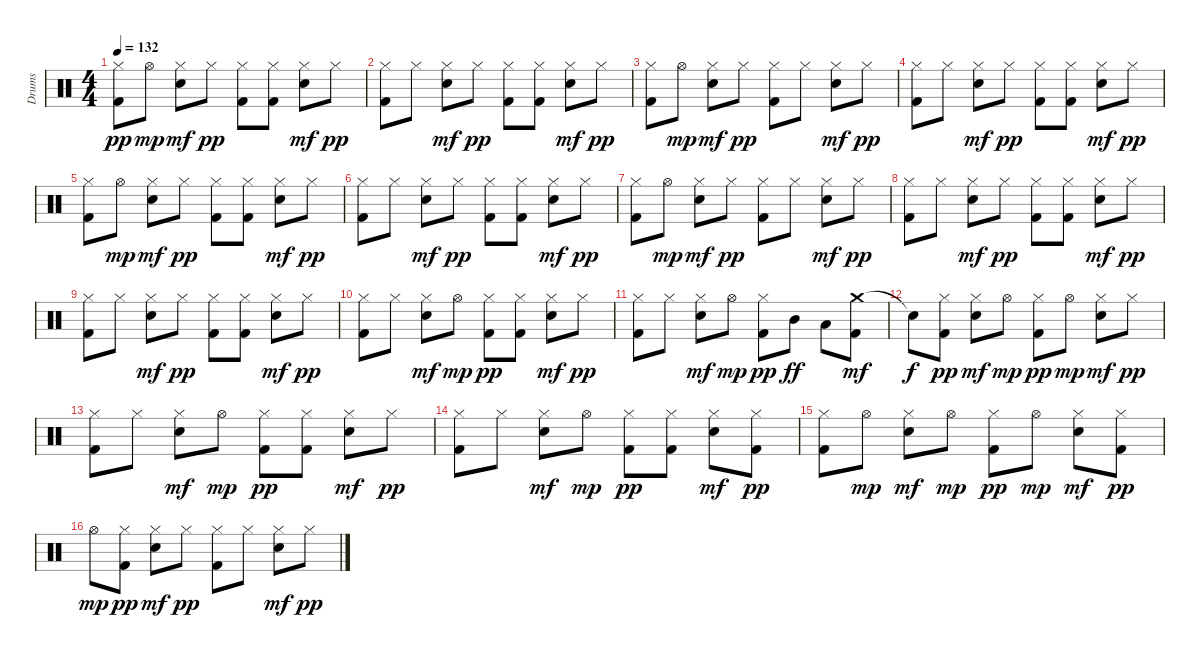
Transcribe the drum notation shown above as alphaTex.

\track ("Drums" "Drums") {instrument percussion}
\staff {score}
\articulation defaults
\ts (4 4)
\tempo 132
\clef neutral
\ks c
("Hi-Hat (closed)" "Kick (hit) 2").8{dy pp} "Hi-Hat (open)".8{dy mp} ("Hi-Hat (closed)" "Snare (hit) 2").8{dy mf} "Hi-Hat (closed)".8{dy pp} ("Hi-Hat (closed)" "Kick (hit) 2").8 ("Hi-Hat (closed)" "Kick (hit) 2").8 ("Hi-Hat (closed)" "Snare (hit) 2").8{dy mf} "Hi-Hat (closed)".8{dy pp} |
("Hi-Hat (closed)" "Kick (hit) 2").8 "Hi-Hat (closed)".8 ("Hi-Hat (closed)" "Snare (hit) 2").8{dy mf} "Hi-Hat (closed)".8{dy pp} ("Hi-Hat (closed)" "Kick (hit) 2").8 ("Hi-Hat (closed)" "Kick (hit) 2").8 ("Hi-Hat (closed)" "Snare (hit) 2").8{dy mf} "Hi-Hat (closed)".8{dy pp} |
("Hi-Hat (closed)" "Kick (hit) 2").8 "Hi-Hat (open)".8{dy mp} ("Hi-Hat (closed)" "Snare (hit) 2").8{dy mf} "Hi-Hat (closed)".8{dy pp} ("Hi-Hat (closed)" "Kick (hit) 2").8 "Hi-Hat (closed)".8 ("Hi-Hat (closed)" "Snare (hit) 2").8{dy mf} "Hi-Hat (closed)".8{dy pp} |
("Hi-Hat (closed)" "Kick (hit) 2").8 "Hi-Hat (closed)".8 ("Hi-Hat (closed)" "Snare (hit) 2").8{dy mf} "Hi-Hat (closed)".8{dy pp} ("Hi-Hat (closed)" "Kick (hit) 2").8 ("Hi-Hat (closed)" "Kick (hit) 2").8 ("Hi-Hat (closed)" "Snare (hit) 2").8{dy mf} "Hi-Hat (closed)".8{dy pp} |
("Hi-Hat (closed)" "Kick (hit) 2").8 "Hi-Hat (open)".8{dy mp} ("Hi-Hat (closed)" "Snare (hit) 2").8{dy mf} "Hi-Hat (closed)".8{dy pp} ("Hi-Hat (closed)" "Kick (hit) 2").8 ("Hi-Hat (closed)" "Kick (hit) 2").8 ("Hi-Hat (closed)" "Snare (hit) 2").8{dy mf} "Hi-Hat (closed)".8{dy pp} |
("Hi-Hat (closed)" "Kick (hit) 2").8 "Hi-Hat (closed)".8 ("Hi-Hat (closed)" "Snare (hit) 2").8{dy mf} "Hi-Hat (closed)".8{dy pp} ("Hi-Hat (closed)" "Kick (hit) 2").8 ("Hi-Hat (closed)" "Kick (hit) 2").8 ("Hi-Hat (closed)" "Snare (hit) 2").8{dy mf} "Hi-Hat (closed)".8{dy pp} |
("Hi-Hat (closed)" "Kick (hit) 2").8 "Hi-Hat (open)".8{dy mp} ("Hi-Hat (closed)" "Snare (hit) 2").8{dy mf} "Hi-Hat (closed)".8{dy pp} ("Hi-Hat (closed)" "Kick (hit) 2").8 "Hi-Hat (closed)".8 ("Hi-Hat (closed)" "Snare (hit) 2").8{dy mf} "Hi-Hat (closed)".8{dy pp} |
("Hi-Hat (closed)" "Kick (hit) 2").8 "Hi-Hat (closed)".8 ("Hi-Hat (closed)" "Snare (hit) 2").8{dy mf} "Hi-Hat (closed)".8{dy pp} ("Hi-Hat (closed)" "Kick (hit) 2").8 ("Hi-Hat (closed)" "Kick (hit) 2").8 ("Hi-Hat (closed)" "Snare (hit) 2").8{dy mf} "Hi-Hat (closed)".8{dy pp} |
("Hi-Hat (closed)" "Kick (hit) 2").8 "Hi-Hat (closed)".8 ("Hi-Hat (closed)" "Snare (hit) 2").8{dy mf} "Hi-Hat (closed)".8{dy pp} ("Hi-Hat (closed)" "Kick (hit) 2").8 ("Hi-Hat (closed)" "Kick (hit) 2").8 ("Hi-Hat (closed)" "Snare (hit) 2").8{dy mf} "Hi-Hat (closed)".8{dy pp} |
("Hi-Hat (closed)" "Kick (hit) 2").8 "Hi-Hat (closed)".8 ("Hi-Hat (closed)" "Snare (hit) 2").8{dy mf} "Hi-Hat (open)".8{dy mp} ("Hi-Hat (closed)" "Kick (hit) 2").8{dy pp} ("Hi-Hat (closed)" "Kick (hit) 2").8 ("Hi-Hat (closed)" "Snare (hit) 2").8{dy mf} "Hi-Hat (closed)".8{dy pp} |
("Hi-Hat (closed)" "Kick (hit) 2").8 "Hi-Hat (closed)".8 ("Hi-Hat (closed)" "Snare (hit) 2").8{dy mf} "Hi-Hat (open)".8{dy mp} ("Hi-Hat (closed)" "Kick (hit) 2").8{dy pp} "Mid Tom (hit)".8{dy ff} "Low Tom (hit)".8 ("Crash medium (hit)" "Kick (hit) 2").8{dy mf} |
"Snare (hit)"{t}.8{dy f} ("Hi-Hat (closed)" "Kick (hit) 2").8{dy pp} ("Hi-Hat (closed)" "Snare (hit) 2").8{dy mf} "Hi-Hat (open)".8{dy mp} ("Hi-Hat (closed)" "Kick (hit) 2").8{dy pp} "Hi-Hat (open)".8{dy mp} ("Hi-Hat (closed)" "Snare (hit) 2").8{dy mf} "Hi-Hat (closed)".8{dy pp} |
("Hi-Hat (closed)" "Kick (hit) 2").8 "Hi-Hat (closed)".8 ("Hi-Hat (closed)" "Snare (hit) 2").8{dy mf} "Hi-Hat (open)".8{dy mp} ("Hi-Hat (closed)" "Kick (hit) 2").8{dy pp} ("Hi-Hat (closed)" "Kick (hit) 2").8 ("Hi-Hat (closed)" "Snare (hit) 2").8{dy mf} "Hi-Hat (closed)".8{dy pp} |
("Hi-Hat (closed)" "Kick (hit) 2").8 "Hi-Hat (closed)".8 ("Hi-Hat (closed)" "Snare (hit) 2").8{dy mf} "Hi-Hat (open)".8{dy mp} ("Hi-Hat (closed)" "Kick (hit) 2").8{dy pp} ("Hi-Hat (closed)" "Kick (hit) 2").8 ("Hi-Hat (closed)" "Snare (hit) 2").8{dy mf} ("Hi-Hat (closed)" "Kick (hit) 2").8{dy pp} |
("Hi-Hat (closed)" "Kick (hit) 2").8 "Hi-Hat (open)".8{dy mp} ("Hi-Hat (closed)" "Snare (hit) 2").8{dy mf} "Hi-Hat (open)".8{dy mp} ("Hi-Hat (closed)" "Kick (hit) 2").8{dy pp} "Hi-Hat (open)".8{dy mp} ("Hi-Hat (closed)" "Snare (hit) 2").8{dy mf} ("Hi-Hat (closed)" "Kick (hit) 2").8{dy pp} |
"Hi-Hat (open)".8{dy mp} ("Hi-Hat (closed)" "Kick (hit) 2").8{dy pp} ("Hi-Hat (closed)" "Snare (hit) 2").8{dy mf} "Hi-Hat (closed)".8{dy pp} ("Hi-Hat (closed)" "Kick (hit) 2").8 "Hi-Hat (closed)".8 ("Hi-Hat (closed)" "Snare (hit) 2").8{dy mf} "Hi-Hat (closed)".8{dy pp}
